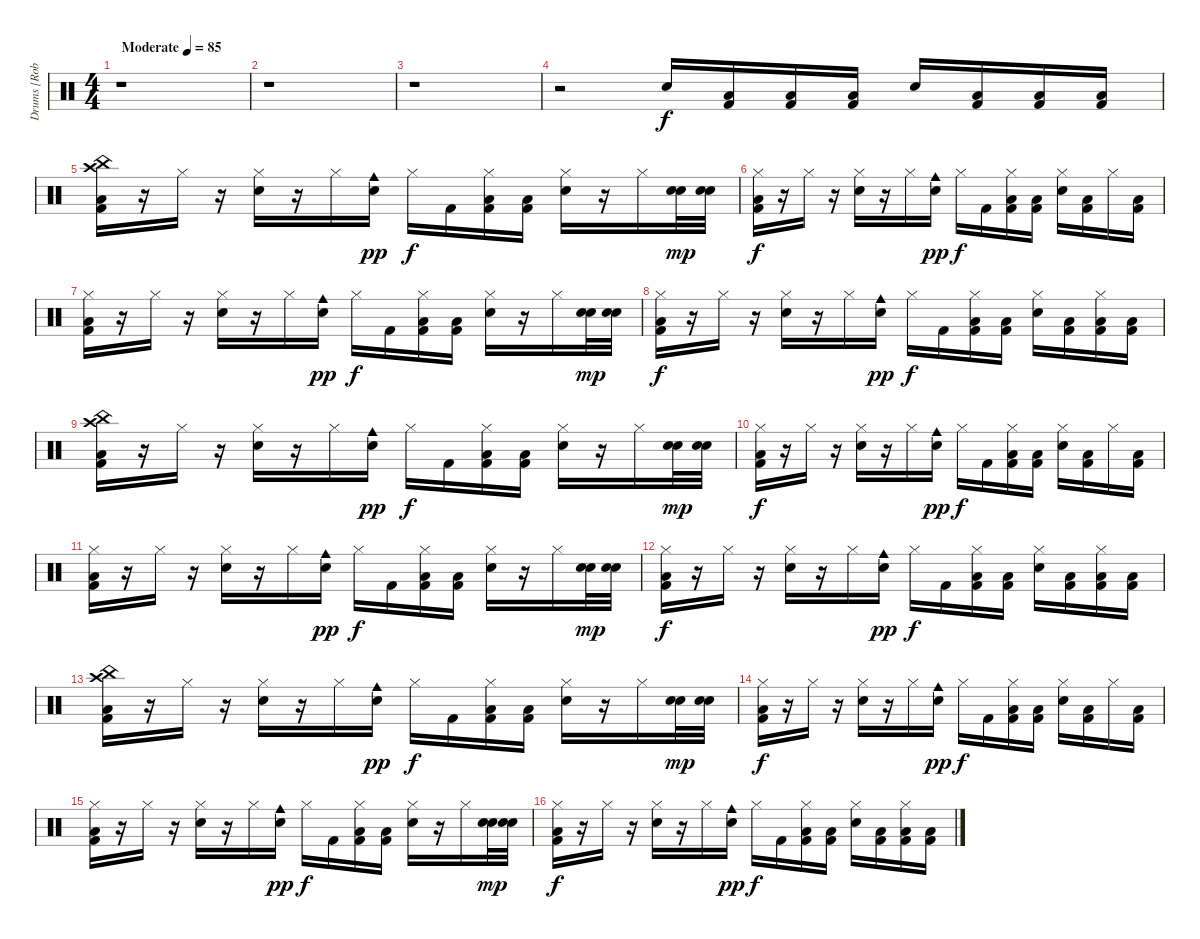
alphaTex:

\track ("Drums [Rob Bourdon]" "Drums [Rob") {instrument percussion}
\staff {score}
\articulation defaults
\ts (4 4)
\tempo (85 "Moderate")
\clef neutral
\ks c
r.1{dy f} |
r.1 |
r.1 |
r.2 "Snare (hit) 2".16 ("Low Floor Tom (hit)" "Kick (hit) 2").16 ("Low Floor Tom (hit)" "Kick (hit) 2").16 ("Low Floor Tom (hit)" "Kick (hit) 2").16 "Snare (hit) 2".16 ("Low Floor Tom (hit)" "Kick (hit) 2").16 ("Low Floor Tom (hit)" "Kick (hit) 2").16 ("Low Floor Tom (hit)" "Kick (hit) 2").16 |
("China (hit)" "Crash high (hit)" "Low Floor Tom (hit)" "Kick (hit) 2").16 r.16 "Hi-Hat (closed)".16 r.16 ("Hi-Hat (closed)" "Snare (hit) 2").16 r.16 "Hi-Hat (closed)".16 ("Snare (hit) 2" "Cowbell medium (hit)").16{dy pp} "Hi-Hat (closed)".16{dy f} "Kick (hit) 2".16 ("Hi-Hat (closed)" "Low Floor Tom (hit)" "Kick (hit) 2").16 ("Low Floor Tom (hit)" "Kick (hit) 2").16 ("Hi-Hat (closed)" "Snare (hit) 2").16 r.16 "Hi-Hat (closed)".16 ("Snare (hit) 2" "Snare (hit) 2").32{dy mp} ("Snare (hit) 2" "Snare (hit) 2").32 |
("Hi-Hat (closed)" "Low Floor Tom (hit)" "Kick (hit) 2").16{dy f} r.16 "Hi-Hat (closed)".16 r.16 ("Hi-Hat (closed)" "Snare (hit) 2").16 r.16 "Hi-Hat (closed)".16 ("Snare (hit) 2" "Cowbell medium (hit)").16{dy pp} "Hi-Hat (closed)".16{dy f} "Kick (hit) 2".16 ("Hi-Hat (closed)" "Low Floor Tom (hit)" "Kick (hit) 2").16 ("Low Floor Tom (hit)" "Kick (hit) 2").16 ("Hi-Hat (closed)" "Snare (hit) 2").16 ("Low Floor Tom (hit)" "Kick (hit) 2").16 "Hi-Hat (closed)".16 ("Low Floor Tom (hit)" "Kick (hit) 2").16 |
("Hi-Hat (closed)" "Low Floor Tom (hit)" "Kick (hit) 2").16 r.16 "Hi-Hat (closed)".16 r.16 ("Hi-Hat (closed)" "Snare (hit) 2").16 r.16 "Hi-Hat (closed)".16 ("Snare (hit) 2" "Cowbell medium (hit)").16{dy pp} "Hi-Hat (closed)".16{dy f} "Kick (hit) 2".16 ("Hi-Hat (closed)" "Low Floor Tom (hit)" "Kick (hit) 2").16 ("Low Floor Tom (hit)" "Kick (hit) 2").16 ("Hi-Hat (closed)" "Snare (hit) 2").16 r.16 "Hi-Hat (closed)".16 ("Snare (hit) 2" "Snare (hit) 2").32{dy mp} ("Snare (hit) 2" "Snare (hit) 2").32 |
("Hi-Hat (closed)" "Low Floor Tom (hit)" "Kick (hit) 2").16{dy f} r.16 "Hi-Hat (closed)".16 r.16 ("Hi-Hat (closed)" "Snare (hit) 2").16 r.16 "Hi-Hat (closed)".16 ("Snare (hit) 2" "Cowbell medium (hit)").16{dy pp} "Hi-Hat (closed)".16{dy f} "Kick (hit) 2".16 ("Hi-Hat (closed)" "Low Floor Tom (hit)" "Kick (hit) 2").16 ("Low Floor Tom (hit)" "Kick (hit) 2").16 ("Hi-Hat (closed)" "Snare (hit) 2").16 ("Low Floor Tom (hit)" "Kick (hit) 2").16 ("Hi-Hat (closed)" "Low Floor Tom (hit)" "Kick (hit) 2").16 ("Low Floor Tom (hit)" "Kick (hit) 2").16 |
("China (hit)" "Crash high (hit)" "Low Floor Tom (hit)" "Kick (hit) 2").16 r.16 "Hi-Hat (closed)".16 r.16 ("Hi-Hat (closed)" "Snare (hit) 2").16 r.16 "Hi-Hat (closed)".16 ("Snare (hit) 2" "Cowbell medium (hit)").16{dy pp} "Hi-Hat (closed)".16{dy f} "Kick (hit) 2".16 ("Hi-Hat (closed)" "Low Floor Tom (hit)" "Kick (hit) 2").16 ("Low Floor Tom (hit)" "Kick (hit) 2").16 ("Hi-Hat (closed)" "Snare (hit) 2").16 r.16 "Hi-Hat (closed)".16 ("Snare (hit) 2" "Snare (hit) 2").32{dy mp} ("Snare (hit) 2" "Snare (hit) 2").32 |
("Hi-Hat (closed)" "Low Floor Tom (hit)" "Kick (hit) 2").16{dy f} r.16 "Hi-Hat (closed)".16 r.16 ("Hi-Hat (closed)" "Snare (hit) 2").16 r.16 "Hi-Hat (closed)".16 ("Snare (hit) 2" "Cowbell medium (hit)").16{dy pp} "Hi-Hat (closed)".16{dy f} "Kick (hit) 2".16 ("Hi-Hat (closed)" "Low Floor Tom (hit)" "Kick (hit) 2").16 ("Low Floor Tom (hit)" "Kick (hit) 2").16 ("Hi-Hat (closed)" "Snare (hit) 2").16 ("Low Floor Tom (hit)" "Kick (hit) 2").16 "Hi-Hat (closed)".16 ("Low Floor Tom (hit)" "Kick (hit) 2").16 |
("Hi-Hat (closed)" "Low Floor Tom (hit)" "Kick (hit) 2").16 r.16 "Hi-Hat (closed)".16 r.16 ("Hi-Hat (closed)" "Snare (hit) 2").16 r.16 "Hi-Hat (closed)".16 ("Snare (hit) 2" "Cowbell medium (hit)").16{dy pp} "Hi-Hat (closed)".16{dy f} "Kick (hit) 2".16 ("Hi-Hat (closed)" "Low Floor Tom (hit)" "Kick (hit) 2").16 ("Low Floor Tom (hit)" "Kick (hit) 2").16 ("Hi-Hat (closed)" "Snare (hit) 2").16 r.16 "Hi-Hat (closed)".16 ("Snare (hit) 2" "Snare (hit) 2").32{dy mp} ("Snare (hit) 2" "Snare (hit) 2").32 |
("Hi-Hat (closed)" "Low Floor Tom (hit)" "Kick (hit) 2").16{dy f} r.16 "Hi-Hat (closed)".16 r.16 ("Hi-Hat (closed)" "Snare (hit) 2").16 r.16 "Hi-Hat (closed)".16 ("Snare (hit) 2" "Cowbell medium (hit)").16{dy pp} "Hi-Hat (closed)".16{dy f} "Kick (hit) 2".16 ("Hi-Hat (closed)" "Low Floor Tom (hit)" "Kick (hit) 2").16 ("Low Floor Tom (hit)" "Kick (hit) 2").16 ("Hi-Hat (closed)" "Snare (hit) 2").16 ("Low Floor Tom (hit)" "Kick (hit) 2").16 ("Hi-Hat (closed)" "Low Floor Tom (hit)" "Kick (hit) 2").16 ("Low Floor Tom (hit)" "Kick (hit) 2").16 |
("China (hit)" "Crash high (hit)" "Low Floor Tom (hit)" "Kick (hit) 2").16 r.16 "Hi-Hat (closed)".16 r.16 ("Hi-Hat (closed)" "Snare (hit) 2").16 r.16 "Hi-Hat (closed)".16 ("Snare (hit) 2" "Cowbell medium (hit)").16{dy pp} "Hi-Hat (closed)".16{dy f} "Kick (hit) 2".16 ("Hi-Hat (closed)" "Low Floor Tom (hit)" "Kick (hit) 2").16 ("Low Floor Tom (hit)" "Kick (hit) 2").16 ("Hi-Hat (closed)" "Snare (hit) 2").16 r.16 "Hi-Hat (closed)".16 ("Snare (hit) 2" "Snare (hit) 2").32{dy mp} ("Snare (hit) 2" "Snare (hit) 2").32 |
("Hi-Hat (closed)" "Low Floor Tom (hit)" "Kick (hit) 2").16{dy f} r.16 "Hi-Hat (closed)".16 r.16 ("Hi-Hat (closed)" "Snare (hit) 2").16 r.16 "Hi-Hat (closed)".16 ("Snare (hit) 2" "Cowbell medium (hit)").16{dy pp} "Hi-Hat (closed)".16{dy f} "Kick (hit) 2".16 ("Hi-Hat (closed)" "Low Floor Tom (hit)" "Kick (hit) 2").16 ("Low Floor Tom (hit)" "Kick (hit) 2").16 ("Hi-Hat (closed)" "Snare (hit) 2").16 ("Low Floor Tom (hit)" "Kick (hit) 2").16 "Hi-Hat (closed)".16 ("Low Floor Tom (hit)" "Kick (hit) 2").16 |
("Hi-Hat (closed)" "Low Floor Tom (hit)" "Kick (hit) 2").16 r.16 "Hi-Hat (closed)".16 r.16 ("Hi-Hat (closed)" "Snare (hit) 2").16 r.16 "Hi-Hat (closed)".16 ("Snare (hit) 2" "Cowbell medium (hit)").16{dy pp} "Hi-Hat (closed)".16{dy f} "Kick (hit) 2".16 ("Hi-Hat (closed)" "Low Floor Tom (hit)" "Kick (hit) 2").16 ("Low Floor Tom (hit)" "Kick (hit) 2").16 ("Hi-Hat (closed)" "Snare (hit) 2").16 r.16 "Hi-Hat (closed)".16 ("Snare (hit) 2" "Snare (hit) 2").32{dy mp} ("Snare (hit) 2" "Snare (hit) 2").32 |
("Hi-Hat (closed)" "Low Floor Tom (hit)" "Kick (hit) 2").16{dy f} r.16 "Hi-Hat (closed)".16 r.16 ("Hi-Hat (closed)" "Snare (hit) 2").16 r.16 "Hi-Hat (closed)".16 ("Snare (hit) 2" "Cowbell medium (hit)").16{dy pp} "Hi-Hat (closed)".16{dy f} "Kick (hit) 2".16 ("Hi-Hat (closed)" "Low Floor Tom (hit)" "Kick (hit) 2").16 ("Low Floor Tom (hit)" "Kick (hit) 2").16 ("Hi-Hat (closed)" "Snare (hit) 2").16 ("Low Floor Tom (hit)" "Kick (hit) 2").16 ("Hi-Hat (closed)" "Low Floor Tom (hit)" "Kick (hit) 2").16 ("Low Floor Tom (hit)" "Kick (hit) 2").16
